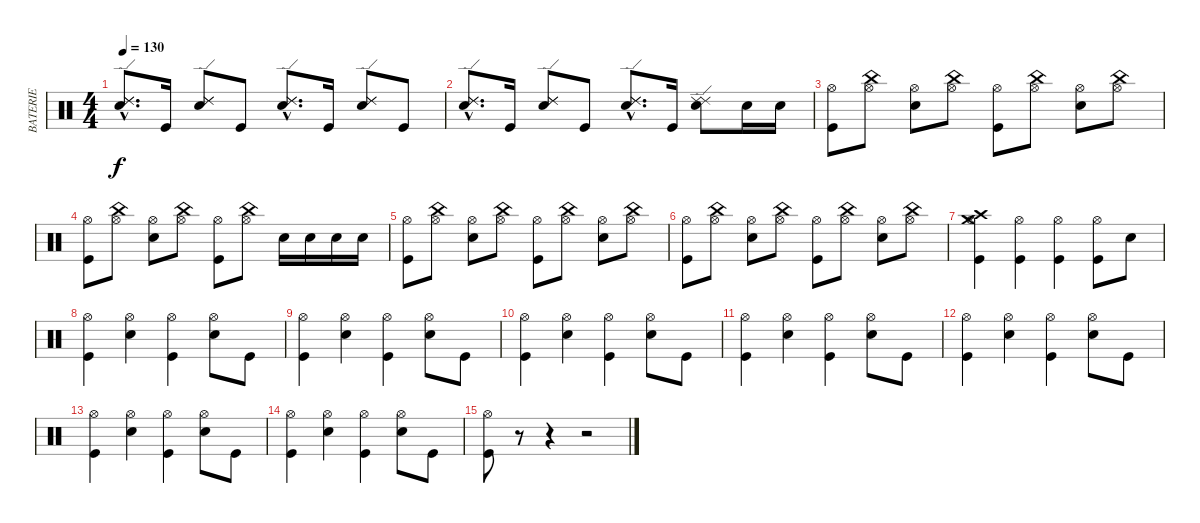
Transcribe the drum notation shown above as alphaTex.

\track ("BATERIE" "BATERIE") {instrument percussion}
\staff {score}
\articulation defaults
\ts (4 4)
\tempo 130
\clef neutral
\ks c
("Ride (edge) 2"{hac} "Ride (edge) 2"{hac} "Snare (hit) 2"{hac}).8{d dy f} "Kick (hit)".16 ("Ride (edge) 2" "Ride (edge) 2" "Snare (hit) 2").8 "Kick (hit)".8 ("Ride (edge) 2"{hac} "Ride (edge) 2"{hac} "Snare (hit) 2"{hac}).8{d} "Kick (hit)".16 ("Ride (edge) 2" "Ride (edge) 2" "Snare (hit) 2").8 "Kick (hit)".8 |
("Ride (edge) 2"{hac} "Ride (edge) 2"{hac} "Snare (hit) 2"{hac}).8{d} "Kick (hit)".16 ("Ride (edge) 2" "Ride (edge) 2" "Snare (hit) 2").8 "Kick (hit)".8 ("Ride (edge) 2"{hac} "Ride (edge) 2"{hac} "Snare (hit) 2"{hac}).8{d} "Kick (hit)".16 ("Ride (edge) 2" "Ride (edge) 2" "Snare (hit) 2").8 "Snare (hit) 2".16 "Snare (hit) 2".16 |
("Hi-Hat (open)" "Kick (hit)").8 ("Hi-Hat (open)" "China (hit)").8 ("Hi-Hat (open)" "Snare (hit) 2").8 ("Hi-Hat (open)" "China (hit)").8 ("Hi-Hat (open)" "Kick (hit)").8 ("Hi-Hat (open)" "China (hit)").8 ("Hi-Hat (open)" "Snare (hit) 2").8 ("Hi-Hat (open)" "China (hit)").8 |
("Hi-Hat (open)" "Kick (hit)").8 ("Hi-Hat (open)" "China (hit)").8 ("Hi-Hat (open)" "Snare (hit) 2").8 ("Hi-Hat (open)" "China (hit)").8 ("Hi-Hat (open)" "Kick (hit)").8 ("Hi-Hat (open)" "China (hit)").8 "Snare (hit) 2".16 "Snare (hit) 2".16 "Snare (hit) 2".16 "Snare (hit) 2".16 |
("Hi-Hat (open)" "Kick (hit)").8 ("Hi-Hat (open)" "China (hit)").8 ("Hi-Hat (open)" "Snare (hit) 2").8 ("Hi-Hat (open)" "China (hit)").8 ("Hi-Hat (open)" "Kick (hit)").8 ("Hi-Hat (open)" "China (hit)").8 ("Hi-Hat (open)" "Snare (hit) 2").8 ("Hi-Hat (open)" "China (hit)").8 |
("Hi-Hat (open)" "Kick (hit)").8 ("Hi-Hat (open)" "China (hit)").8 ("Hi-Hat (open)" "Snare (hit) 2").8 ("Hi-Hat (open)" "China (hit)").8 ("Hi-Hat (open)" "Kick (hit)").8 ("Hi-Hat (open)" "China (hit)").8 ("Hi-Hat (open)" "Snare (hit) 2").8 ("Hi-Hat (open)" "China (hit)").8 |
("Crash medium (hit)" "Crash high (hit)" "Hi-Hat (open)" "Kick (hit)").4 ("Hi-Hat (open)" "Kick (hit)").4 ("Hi-Hat (open)" "Kick (hit)").4 ("Hi-Hat (open)" "Kick (hit)").8 "Snare (hit) 2".8 |
("Hi-Hat (open)" "Kick (hit)").4 ("Hi-Hat (open)" "Snare (hit) 2").4 ("Hi-Hat (open)" "Kick (hit)").4 ("Hi-Hat (open)" "Snare (hit) 2").8 "Kick (hit)".8 |
("Hi-Hat (open)" "Kick (hit)").4 ("Hi-Hat (open)" "Snare (hit) 2").4 ("Hi-Hat (open)" "Kick (hit)").4 ("Hi-Hat (open)" "Snare (hit) 2").8 "Kick (hit)".8 |
("Hi-Hat (open)" "Kick (hit)").4 ("Hi-Hat (open)" "Snare (hit) 2").4 ("Hi-Hat (open)" "Kick (hit)").4 ("Hi-Hat (open)" "Snare (hit) 2").8 "Kick (hit)".8 |
("Hi-Hat (open)" "Kick (hit)").4 ("Hi-Hat (open)" "Snare (hit) 2").4 ("Hi-Hat (open)" "Kick (hit)").4 ("Hi-Hat (open)" "Snare (hit) 2").8 "Kick (hit)".8 |
("Hi-Hat (open)" "Kick (hit)").4 ("Hi-Hat (open)" "Snare (hit) 2").4 ("Hi-Hat (open)" "Kick (hit)").4 ("Hi-Hat (open)" "Snare (hit) 2").8 "Kick (hit)".8 |
("Hi-Hat (open)" "Kick (hit)").4 ("Hi-Hat (open)" "Snare (hit) 2").4 ("Hi-Hat (open)" "Kick (hit)").4 ("Hi-Hat (open)" "Snare (hit) 2").8 "Kick (hit)".8 |
("Hi-Hat (open)" "Kick (hit)").4 ("Hi-Hat (open)" "Snare (hit) 2").4 ("Hi-Hat (open)" "Kick (hit)").4 ("Hi-Hat (open)" "Snare (hit) 2").8 "Kick (hit)".8 |
("Hi-Hat (open)" "Kick (hit)").8 r.8 r.4 r.2
